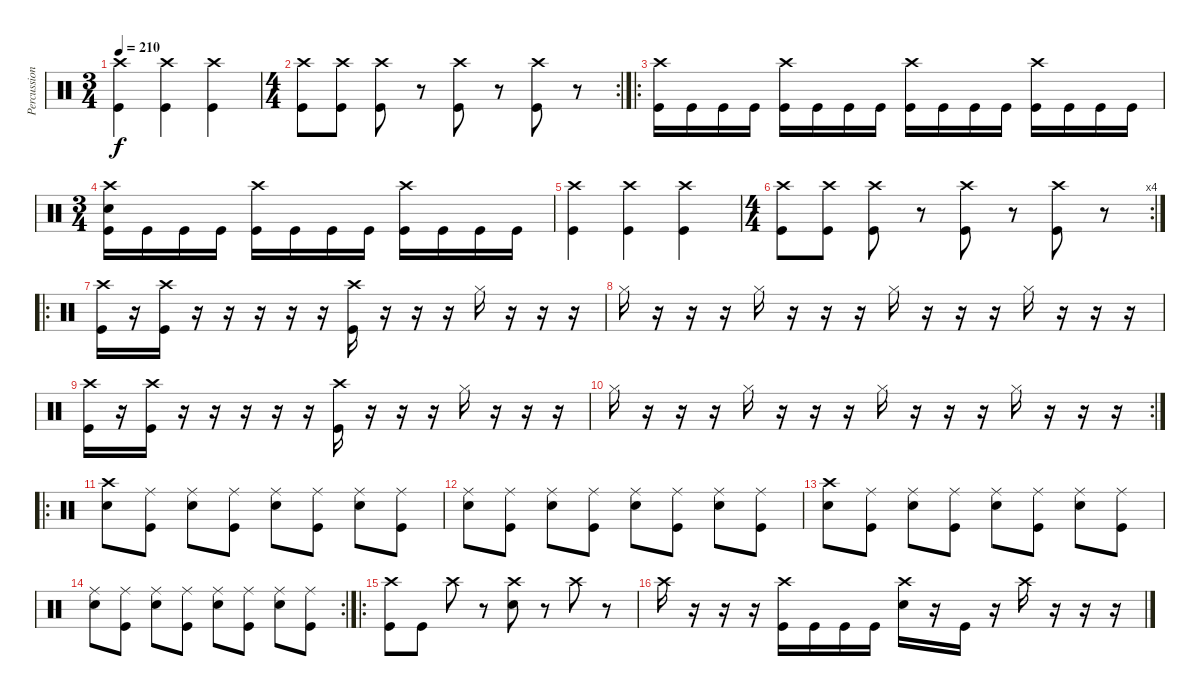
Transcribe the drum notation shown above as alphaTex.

\track ("Percussion" "Percussion") {instrument percussion}
\staff {score}
\articulation defaults
\ts (3 4)
\tempo 210
\clef neutral
\ks c
("Crash high (hit)" "Kick (hit)").4{dy f} ("Crash high (hit)" "Kick (hit)").4 ("Crash high (hit)" "Kick (hit)").4 |
\rc 2
\ts (4 4)
("Crash high (hit)" "Kick (hit)").8 ("Crash high (hit)" "Kick (hit)").8 ("Crash high (hit)" "Kick (hit)").8 r.8 ("Crash high (hit)" "Kick (hit)").8 r.8 ("Crash high (hit)" "Kick (hit)").8 r.8 |
\ro
("Crash high (hit)" "Kick (hit)").16 "Kick (hit)".16 "Kick (hit)".16 "Kick (hit)".16 ("Crash high (hit)" "Kick (hit)").16 "Kick (hit)".16 "Kick (hit)".16 "Kick (hit)".16 ("Crash high (hit)" "Kick (hit)").16 "Kick (hit)".16 "Kick (hit)".16 "Kick (hit)".16 ("Crash high (hit)" "Kick (hit)").16 "Kick (hit)".16 "Kick (hit)".16 "Kick (hit)".16 |
\ts (3 4)
("Crash high (hit)" "Electric Snare (hit)" "Kick (hit)").16 "Kick (hit)".16 "Kick (hit)".16 "Kick (hit)".16 ("Crash high (hit)" "Kick (hit)").16 "Kick (hit)".16 "Kick (hit)".16 "Kick (hit)".16 ("Crash high (hit)" "Kick (hit)").16 "Kick (hit)".16 "Kick (hit)".16 "Kick (hit)".16 |
("Crash high (hit)" "Kick (hit)").4 ("Crash high (hit)" "Kick (hit)").4 ("Crash high (hit)" "Kick (hit)").4 |
\rc 4
\ts (4 4)
("Crash high (hit)" "Kick (hit)").8 ("Crash high (hit)" "Kick (hit)").8 ("Crash high (hit)" "Kick (hit)").8 r.8 ("Crash high (hit)" "Kick (hit)").8 r.8 ("Crash high (hit)" "Kick (hit)").8 r.8 |
\ro
("Crash high (hit)" "Kick (hit)").16 r.16 ("Crash high (hit)" "Kick (hit)").16 r.16 r.16 r.16 r.16 r.16 ("Crash high (hit)" "Kick (hit)").16 r.16 r.16 r.16 "Hi-Hat (closed)".16 r.16 r.16 r.16 |
"Hi-Hat (closed)".16 r.16 r.16 r.16 "Hi-Hat (closed)".16 r.16 r.16 r.16 "Hi-Hat (closed)".16 r.16 r.16 r.16 "Hi-Hat (closed)".16 r.16 r.16 r.16 |
("Crash high (hit)" "Kick (hit)").16 r.16 ("Crash high (hit)" "Kick (hit)").16 r.16 r.16 r.16 r.16 r.16 ("Crash high (hit)" "Kick (hit)").16 r.16 r.16 r.16 "Hi-Hat (closed)".16 r.16 r.16 r.16 |
\rc 2 "Hi-Hat (closed)".16
r.16 r.16 r.16 "Hi-Hat (closed)".16 r.16 r.16 r.16 "Hi-Hat (closed)".16 r.16 r.16 r.16 "Hi-Hat (closed)".16 r.16 r.16 r.16 |
\ro
("Electric Snare (hit)" "Crash high (hit)").8 ("Kick (hit)" "Ride (middle)").8 ("Electric Snare (hit)" "Ride (middle)").8 ("Kick (hit)" "Ride (middle)").8 ("Electric Snare (hit)" "Ride (middle)").8 ("Kick (hit)" "Ride (middle)").8 ("Electric Snare (hit)" "Ride (middle)").8 ("Kick (hit)" "Ride (middle)").8 |
("Electric Snare (hit)" "Ride (middle)").8 ("Kick (hit)" "Ride (middle)").8 ("Electric Snare (hit)" "Ride (middle)").8 ("Kick (hit)" "Ride (middle)").8 ("Electric Snare (hit)" "Ride (middle)").8 ("Kick (hit)" "Ride (middle)").8 ("Electric Snare (hit)" "Ride (middle)").8 ("Kick (hit)" "Ride (middle)").8 |
("Electric Snare (hit)" "Crash high (hit)").8 ("Kick (hit)" "Ride (middle)").8 ("Electric Snare (hit)" "Ride (middle)").8 ("Kick (hit)" "Ride (middle)").8 ("Electric Snare (hit)" "Ride (middle)").8 ("Kick (hit)" "Ride (middle)").8 ("Electric Snare (hit)" "Ride (middle)").8 ("Kick (hit)" "Ride (middle)").8 |
\rc 2
("Electric Snare (hit)" "Ride (middle)").8 ("Kick (hit)" "Ride (middle)").8 ("Electric Snare (hit)" "Ride (middle)").8 ("Kick (hit)" "Ride (middle)").8 ("Electric Snare (hit)" "Ride (middle)").8 ("Kick (hit)" "Ride (middle)").8 ("Electric Snare (hit)" "Ride (middle)").8 ("Kick (hit)" "Ride (middle)").8 |
\ro
("Kick (hit)" "Crash high (hit)").8 "Kick (hit)".8 "Crash high (hit)".8 r.8 ("Electric Snare (hit)" "Crash high (hit)").8 r.8 "Crash high (hit)".8 r.8 |
"Crash high (hit)".16 r.16 r.16 r.16 ("Kick (hit)" "Crash high (hit)").16 "Kick (hit)".16 "Kick (hit)".16 "Kick (hit)".16 ("Electric Snare (hit)" "Crash high (hit)").16 r.16 "Kick (hit)".16 r.16 "Crash high (hit)".16 r.16 r.16 r.16
